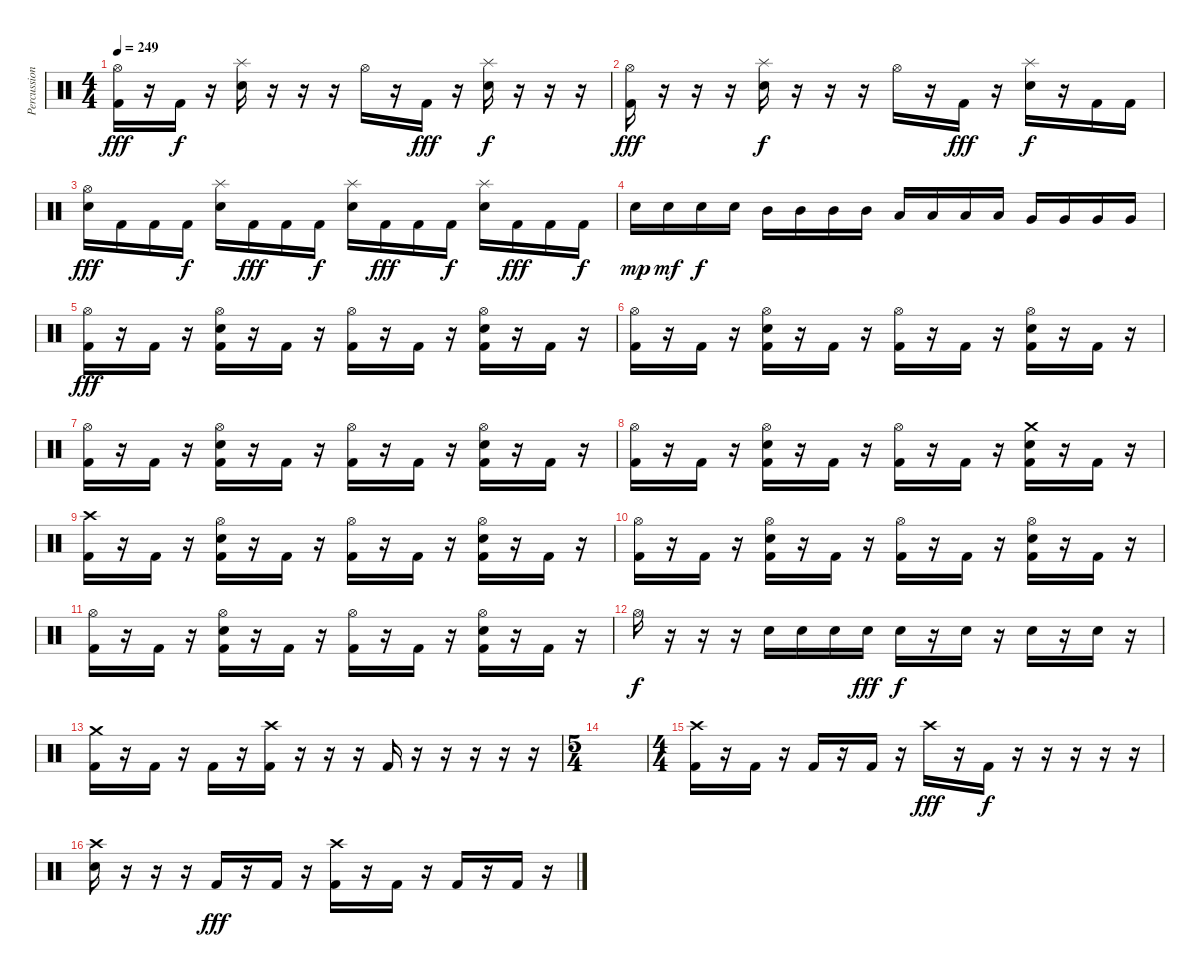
\track ("Percussion" "Percussion") {instrument percussion}
\staff {score}
\articulation defaults
\ts (4 4)
\tempo 249
\clef neutral
\ks c
("Hi-Hat (open)" "Kick (hit) 2").16{dy fff} r.16 "Kick (hit) 2".16{dy f} r.16 ("Splash (hit)" "Electric Snare (hit)").16 r.16 r.16 r.16 "Hi-Hat (open)".16 r.16 "Kick (hit) 2".16{dy fff} r.16 ("Splash (hit)" "Electric Snare (hit)").16{dy f} r.16 r.16 r.16 |
("Hi-Hat (open)" "Kick (hit) 2").16{dy fff} r.16 r.16 r.16 ("Splash (hit)" "Electric Snare (hit)").16{dy f} r.16 r.16 r.16 "Hi-Hat (open)".16 r.16 "Kick (hit) 2".16{dy fff} r.16 ("Splash (hit)" "Electric Snare (hit)").16{dy f} r.16 "Kick (hit) 2".16 "Kick (hit) 2".16 |
("Hi-Hat (open)" "Electric Snare (hit)").16{dy fff} "Kick (hit) 2".16 "Kick (hit) 2".16 "Kick (hit) 2".16{dy f} ("Splash (hit)" "Electric Snare (hit)").16 "Kick (hit) 2".16{dy fff} "Kick (hit) 2".16 "Kick (hit) 2".16{dy f} ("Splash (hit)" "Electric Snare (hit)").16 "Kick (hit) 2".16{dy fff} "Kick (hit) 2".16 "Kick (hit) 2".16{dy f} ("Splash (hit)" "Electric Snare (hit)").16 "Kick (hit) 2".16{dy fff} "Kick (hit) 2".16 "Kick (hit) 2".16{dy f} |
"Electric Snare (hit)".16{dy mp} "Electric Snare (hit)".16{dy mf} "Electric Snare (hit)".16{dy f} "Electric Snare (hit)".16 "Mid Tom (hit)".16 "Mid Tom (hit)".16 "Mid Tom (hit)".16 "Mid Tom (hit)".16 "Low Tom (hit)".16 "Low Tom (hit)".16 "Low Tom (hit)".16 "Low Tom (hit)".16 "Very Low Tom (hit)".16 "Very Low Tom (hit)".16 "Very Low Tom (hit)".16 "Very Low Tom (hit)".16 |
("Hi-Hat (open)" "Kick (hit) 2").16{dy fff} r.16 "Kick (hit) 2".16 r.16 ("Hi-Hat (open)" "Electric Snare (hit)" "Kick (hit) 2").16 r.16 "Kick (hit) 2".16 r.16 ("Hi-Hat (open)" "Kick (hit) 2").16 r.16 "Kick (hit) 2".16 r.16 ("Hi-Hat (open)" "Electric Snare (hit)" "Kick (hit) 2").16 r.16 "Kick (hit) 2".16 r.16 |
("Hi-Hat (open)" "Kick (hit) 2").16 r.16 "Kick (hit) 2".16 r.16 ("Hi-Hat (open)" "Electric Snare (hit)" "Kick (hit) 2").16 r.16 "Kick (hit) 2".16 r.16 ("Hi-Hat (open)" "Kick (hit) 2").16 r.16 "Kick (hit) 2".16 r.16 ("Hi-Hat (open)" "Electric Snare (hit)" "Kick (hit) 2").16 r.16 "Kick (hit) 2".16 r.16 |
("Hi-Hat (open)" "Kick (hit) 2").16 r.16 "Kick (hit) 2".16 r.16 ("Hi-Hat (open)" "Electric Snare (hit)" "Kick (hit) 2").16 r.16 "Kick (hit) 2".16 r.16 ("Hi-Hat (open)" "Kick (hit) 2").16 r.16 "Kick (hit) 2".16 r.16 ("Hi-Hat (open)" "Electric Snare (hit)" "Kick (hit) 2").16 r.16 "Kick (hit) 2".16 r.16 |
("Hi-Hat (open)" "Kick (hit) 2").16 r.16 "Kick (hit) 2".16 r.16 ("Hi-Hat (open)" "Electric Snare (hit)" "Kick (hit) 2").16 r.16 "Kick (hit) 2".16 r.16 ("Hi-Hat (open)" "Kick (hit) 2").16 r.16 "Kick (hit) 2".16 r.16 ("Crash medium (hit)" "Electric Snare (hit)" "Kick (hit) 2").16 r.16 "Kick (hit) 2".16 r.16 |
("Crash high (hit)" "Kick (hit) 2").16 r.16 "Kick (hit) 2".16 r.16 ("Hi-Hat (open)" "Electric Snare (hit)" "Kick (hit) 2").16 r.16 "Kick (hit) 2".16 r.16 ("Hi-Hat (open)" "Kick (hit) 2").16 r.16 "Kick (hit) 2".16 r.16 ("Hi-Hat (open)" "Electric Snare (hit)" "Kick (hit) 2").16 r.16 "Kick (hit) 2".16 r.16 |
("Hi-Hat (open)" "Kick (hit) 2").16 r.16 "Kick (hit) 2".16 r.16 ("Hi-Hat (open)" "Electric Snare (hit)" "Kick (hit) 2").16 r.16 "Kick (hit) 2".16 r.16 ("Hi-Hat (open)" "Kick (hit) 2").16 r.16 "Kick (hit) 2".16 r.16 ("Hi-Hat (open)" "Electric Snare (hit)" "Kick (hit) 2").16 r.16 "Kick (hit) 2".16 r.16 |
("Hi-Hat (open)" "Kick (hit) 2").16 r.16 "Kick (hit) 2".16 r.16 ("Hi-Hat (open)" "Electric Snare (hit)" "Kick (hit) 2").16 r.16 "Kick (hit) 2".16 r.16 ("Hi-Hat (open)" "Kick (hit) 2").16 r.16 "Kick (hit) 2".16 r.16 ("Hi-Hat (open)" "Electric Snare (hit)" "Kick (hit) 2").16 r.16 "Kick (hit) 2".16 r.16 |
"Hi-Hat (open)".16{dy f} r.16 r.16 r.16 "Electric Snare (hit)".16 "Electric Snare (hit)".16 "Electric Snare (hit)".16 "Electric Snare (hit)".16{dy fff} "Electric Snare (hit)".16{dy f} r.16 "Electric Snare (hit)".16 r.16 "Electric Snare (hit)".16 r.16 "Electric Snare (hit)".16 r.16 |
("Crash medium (hit)" "Kick (hit) 2").16 r.16 "Kick (hit) 2".16 r.16 "Kick (hit) 2".16 r.16 ("Crash high (hit)" "Kick (hit) 2").16 r.16 r.16 r.16 "Kick (hit) 2".16 r.16 r.16 r.16 r.16 r.16 |
\ts (5 4)
|
\ts (4 4)
("Crash high (hit)" "Kick (hit) 2").16 r.16 "Kick (hit) 2".16 r.16 "Kick (hit) 2".16 r.16 "Kick (hit) 2".16 r.16 "Crash high (hit)".16{dy fff} r.16 "Kick (hit) 2".16{dy f} r.16 r.16 r.16 r.16 r.16 |
("Crash high (hit)" "Electric Snare (hit)").16 r.16 r.16 r.16 "Kick (hit) 2".16{dy fff} r.16 "Kick (hit) 2".16 r.16 ("Crash high (hit)" "Kick (hit) 2").16 r.16 "Kick (hit) 2".16 r.16 "Kick (hit) 2".16 r.16 "Kick (hit) 2".16 r.16
